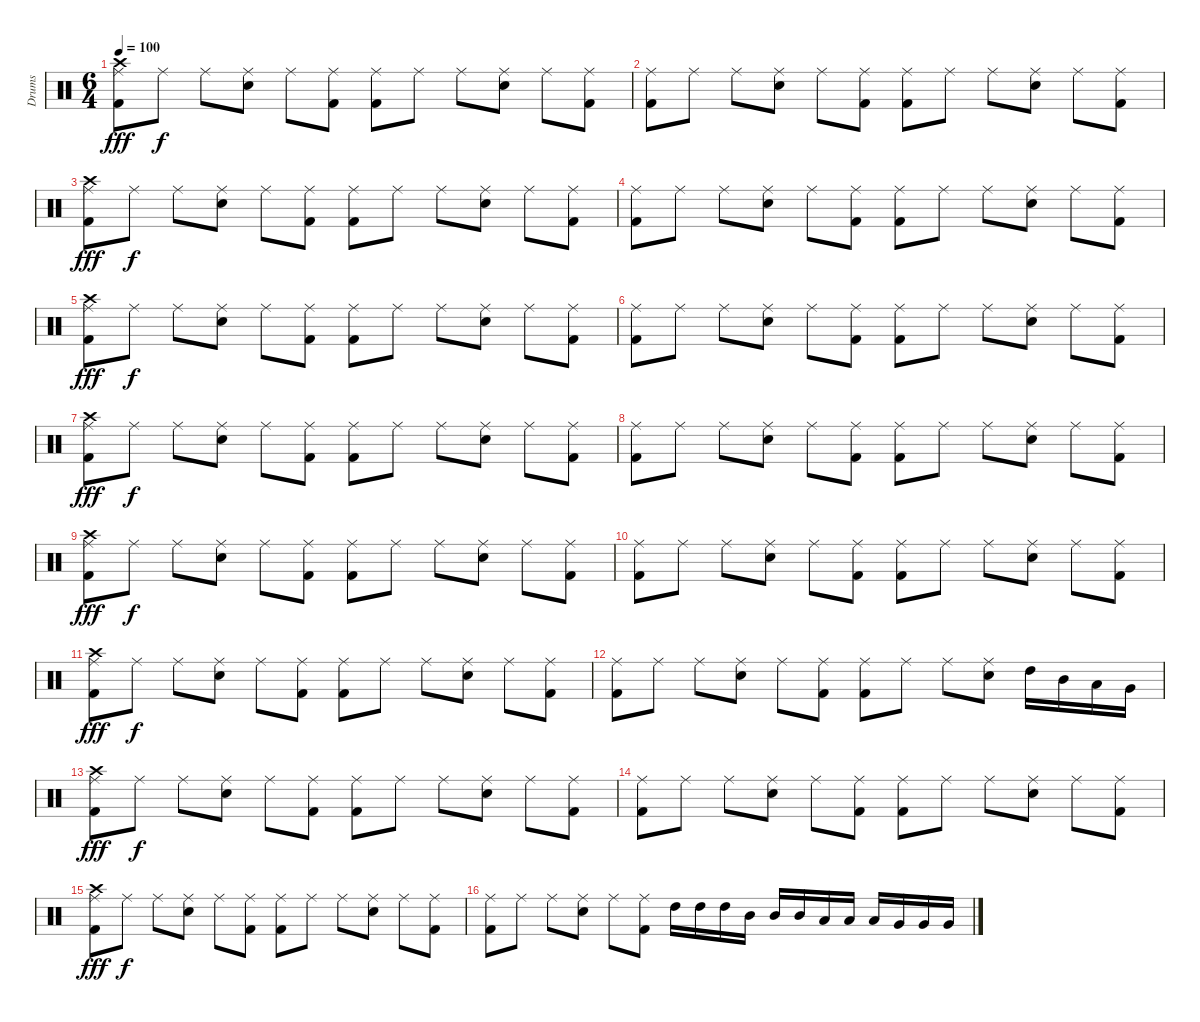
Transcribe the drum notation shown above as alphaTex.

\track ("Drums" "Drums") {instrument percussion}
\staff {score}
\articulation defaults
\ts (6 4)
\tempo 100
\clef neutral
\ks c
("Crash high (hit)" "Ride (middle)" "Kick (hit) 2").8{dy fff} "Ride (middle)".8{dy f} "Ride (middle)".8 ("Ride (middle)" "Electric Snare (hit)").8 "Ride (middle)".8 ("Ride (middle)" "Kick (hit) 2").8 ("Ride (middle)" "Kick (hit) 2").8 "Ride (middle)".8 "Ride (middle)".8 ("Ride (middle)" "Electric Snare (hit)").8 "Ride (middle)".8 ("Ride (middle)" "Kick (hit) 2").8 |
("Ride (middle)" "Kick (hit) 2").8 "Ride (middle)".8 "Ride (middle)".8 ("Ride (middle)" "Electric Snare (hit)").8 "Ride (middle)".8 ("Ride (middle)" "Kick (hit) 2").8 ("Ride (middle)" "Kick (hit) 2").8 "Ride (middle)".8 "Ride (middle)".8 ("Ride (middle)" "Electric Snare (hit)").8 "Ride (middle)".8 ("Ride (middle)" "Kick (hit) 2").8 |
("Crash high (hit)" "Ride (middle)" "Kick (hit) 2").8{dy fff} "Ride (middle)".8{dy f} "Ride (middle)".8 ("Ride (middle)" "Electric Snare (hit)").8 "Ride (middle)".8 ("Ride (middle)" "Kick (hit) 2").8 ("Ride (middle)" "Kick (hit) 2").8 "Ride (middle)".8 "Ride (middle)".8 ("Ride (middle)" "Electric Snare (hit)").8 "Ride (middle)".8 ("Ride (middle)" "Kick (hit) 2").8 |
("Ride (middle)" "Kick (hit) 2").8 "Ride (middle)".8 "Ride (middle)".8 ("Ride (middle)" "Electric Snare (hit)").8 "Ride (middle)".8 ("Ride (middle)" "Kick (hit) 2").8 ("Ride (middle)" "Kick (hit) 2").8 "Ride (middle)".8 "Ride (middle)".8 ("Ride (middle)" "Electric Snare (hit)").8 "Ride (middle)".8 ("Ride (middle)" "Kick (hit) 2").8 |
("Crash high (hit)" "Ride (middle)" "Kick (hit) 2").8{dy fff} "Ride (middle)".8{dy f} "Ride (middle)".8 ("Ride (middle)" "Electric Snare (hit)").8 "Ride (middle)".8 ("Ride (middle)" "Kick (hit) 2").8 ("Ride (middle)" "Kick (hit) 2").8 "Ride (middle)".8 "Ride (middle)".8 ("Ride (middle)" "Electric Snare (hit)").8 "Ride (middle)".8 ("Ride (middle)" "Kick (hit) 2").8 |
("Ride (middle)" "Kick (hit) 2").8 "Ride (middle)".8 "Ride (middle)".8 ("Ride (middle)" "Electric Snare (hit)").8 "Ride (middle)".8 ("Ride (middle)" "Kick (hit) 2").8 ("Ride (middle)" "Kick (hit) 2").8 "Ride (middle)".8 "Ride (middle)".8 ("Ride (middle)" "Electric Snare (hit)").8 "Ride (middle)".8 ("Ride (middle)" "Kick (hit) 2").8 |
("Crash high (hit)" "Ride (middle)" "Kick (hit) 2").8{dy fff} "Ride (middle)".8{dy f} "Ride (middle)".8 ("Ride (middle)" "Electric Snare (hit)").8 "Ride (middle)".8 ("Ride (middle)" "Kick (hit) 2").8 ("Ride (middle)" "Kick (hit) 2").8 "Ride (middle)".8 "Ride (middle)".8 ("Ride (middle)" "Electric Snare (hit)").8 "Ride (middle)".8 ("Ride (middle)" "Kick (hit) 2").8 |
("Ride (middle)" "Kick (hit) 2").8 "Ride (middle)".8 "Ride (middle)".8 ("Ride (middle)" "Electric Snare (hit)").8 "Ride (middle)".8 ("Ride (middle)" "Kick (hit) 2").8 ("Ride (middle)" "Kick (hit) 2").8 "Ride (middle)".8 "Ride (middle)".8 ("Ride (middle)" "Electric Snare (hit)").8 "Ride (middle)".8 ("Ride (middle)" "Kick (hit) 2").8 |
("Crash high (hit)" "Ride (middle)" "Kick (hit) 2").8{dy fff} "Ride (middle)".8{dy f} "Ride (middle)".8 ("Ride (middle)" "Electric Snare (hit)").8 "Ride (middle)".8 ("Ride (middle)" "Kick (hit) 2").8 ("Ride (middle)" "Kick (hit) 2").8 "Ride (middle)".8 "Ride (middle)".8 ("Ride (middle)" "Electric Snare (hit)").8 "Ride (middle)".8 ("Ride (middle)" "Kick (hit) 2").8 |
("Ride (middle)" "Kick (hit) 2").8 "Ride (middle)".8 "Ride (middle)".8 ("Ride (middle)" "Electric Snare (hit)").8 "Ride (middle)".8 ("Ride (middle)" "Kick (hit) 2").8 ("Ride (middle)" "Kick (hit) 2").8 "Ride (middle)".8 "Ride (middle)".8 ("Ride (middle)" "Electric Snare (hit)").8 "Ride (middle)".8 ("Ride (middle)" "Kick (hit) 2").8 |
("Crash high (hit)" "Ride (middle)" "Kick (hit) 2").8{dy fff} "Ride (middle)".8{dy f} "Ride (middle)".8 ("Ride (middle)" "Electric Snare (hit)").8 "Ride (middle)".8 ("Ride (middle)" "Kick (hit) 2").8 ("Ride (middle)" "Kick (hit) 2").8 "Ride (middle)".8 "Ride (middle)".8 ("Ride (middle)" "Electric Snare (hit)").8 "Ride (middle)".8 ("Ride (middle)" "Kick (hit) 2").8 |
("Ride (middle)" "Kick (hit) 2").8 "Ride (middle)".8 "Ride (middle)".8 ("Ride (middle)" "Electric Snare (hit)").8 "Ride (middle)".8 ("Ride (middle)" "Kick (hit) 2").8 ("Ride (middle)" "Kick (hit) 2").8 "Ride (middle)".8 "Ride (middle)".8 ("Ride (middle)" "Electric Snare (hit)").8 "High Tom (hit)".16 "Mid Tom (hit)".16 "Low Tom (hit)".16 "Very Low Tom (hit)".16 |
("Crash high (hit)" "Ride (middle)" "Kick (hit) 2").8{dy fff} "Ride (middle)".8{dy f} "Ride (middle)".8 ("Ride (middle)" "Electric Snare (hit)").8 "Ride (middle)".8 ("Ride (middle)" "Kick (hit) 2").8 ("Ride (middle)" "Kick (hit) 2").8 "Ride (middle)".8 "Ride (middle)".8 ("Ride (middle)" "Electric Snare (hit)").8 "Ride (middle)".8 ("Ride (middle)" "Kick (hit) 2").8 |
("Ride (middle)" "Kick (hit) 2").8 "Ride (middle)".8 "Ride (middle)".8 ("Ride (middle)" "Electric Snare (hit)").8 "Ride (middle)".8 ("Ride (middle)" "Kick (hit) 2").8 ("Ride (middle)" "Kick (hit) 2").8 "Ride (middle)".8 "Ride (middle)".8 ("Ride (middle)" "Electric Snare (hit)").8 "Ride (middle)".8 ("Ride (middle)" "Kick (hit) 2").8 |
("Crash high (hit)" "Ride (middle)" "Kick (hit) 2").8{dy fff} "Ride (middle)".8{dy f} "Ride (middle)".8 ("Ride (middle)" "Electric Snare (hit)").8 "Ride (middle)".8 ("Ride (middle)" "Kick (hit) 2").8 ("Ride (middle)" "Kick (hit) 2").8 "Ride (middle)".8 "Ride (middle)".8 ("Ride (middle)" "Electric Snare (hit)").8 "Ride (middle)".8 ("Ride (middle)" "Kick (hit) 2").8 |
("Ride (middle)" "Kick (hit) 2").8 "Ride (middle)".8 "Ride (middle)".8 ("Ride (middle)" "Electric Snare (hit)").8 "Ride (middle)".8 ("Ride (middle)" "Kick (hit) 2").8 "High Tom (hit)".16 "High Tom (hit)".16 "High Tom (hit)".16 "Mid Tom (hit)".16 "Mid Tom (hit)".16 "Mid Tom (hit)".16 "Low Tom (hit)".16 "Low Tom (hit)".16 "Low Tom (hit)".16 "Very Low Tom (hit)".16 "Very Low Tom (hit)".16 "Very Low Tom (hit)".16
